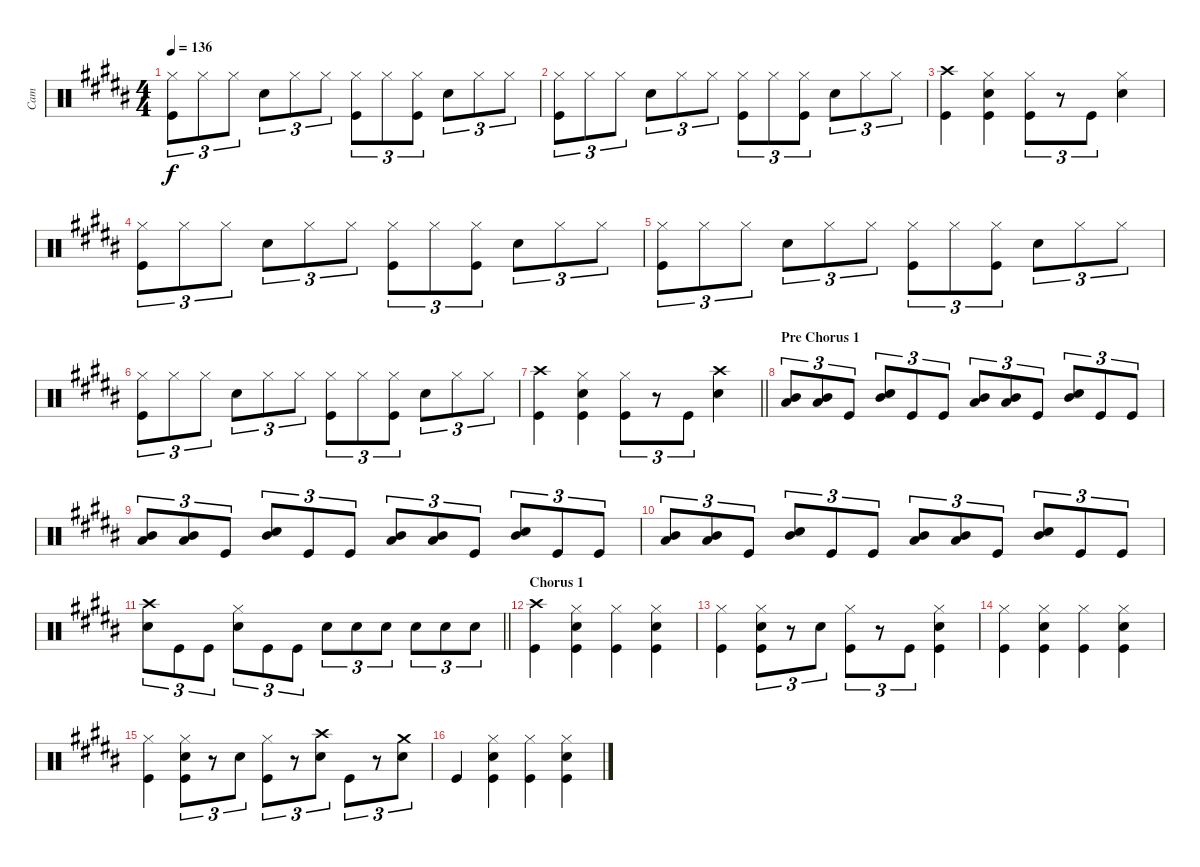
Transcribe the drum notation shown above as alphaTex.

\track ("Cam" "Cam") {instrument percussion}
\staff {score}
\articulation defaults
\ts (4 4)
\tempo 136
\clef neutral
\ks b
("Hi-Hat (closed)" "Kick (hit)").8{tu (3 2) dy f} "Hi-Hat (closed)".8{tu (3 2)} "Hi-Hat (closed)".8{tu (3 2)} "Snare (hit) 2".8{tu (3 2)} "Hi-Hat (closed)".8{tu (3 2)} "Hi-Hat (closed)".8{tu (3 2)} ("Hi-Hat (closed)" "Kick (hit)").8{tu (3 2)} "Hi-Hat (closed)".8{tu (3 2)} ("Hi-Hat (closed)" "Kick (hit)").8{tu (3 2)} "Snare (hit) 2".8{tu (3 2)} "Hi-Hat (closed)".8{tu (3 2)} "Hi-Hat (closed)".8{tu (3 2)} |
("Hi-Hat (closed)" "Kick (hit)").8{tu (3 2)} "Hi-Hat (closed)".8{tu (3 2)} "Hi-Hat (closed)".8{tu (3 2)} "Snare (hit) 2".8{tu (3 2)} "Hi-Hat (closed)".8{tu (3 2)} "Hi-Hat (closed)".8{tu (3 2)} ("Hi-Hat (closed)" "Kick (hit)").8{tu (3 2)} "Hi-Hat (closed)".8{tu (3 2)} ("Hi-Hat (closed)" "Kick (hit)").8{tu (3 2)} "Snare (hit) 2".8{tu (3 2)} "Hi-Hat (closed)".8{tu (3 2)} "Hi-Hat (closed)".8{tu (3 2)} |
("Crash high (hit)" "Kick (hit)").4 ("Snare (hit) 2" "Hi-Hat (closed)" "Kick (hit)").4 ("Hi-Hat (closed)" "Kick (hit)").8{tu (3 2)} r.8{tu (3 2)} "Kick (hit)".8{tu (3 2)} ("Snare (hit) 2" "Hi-Hat (closed)").4 |
("Hi-Hat (closed)" "Kick (hit)").8{tu (3 2)} "Hi-Hat (closed)".8{tu (3 2)} "Hi-Hat (closed)".8{tu (3 2)} "Snare (hit) 2".8{tu (3 2)} "Hi-Hat (closed)".8{tu (3 2)} "Hi-Hat (closed)".8{tu (3 2)} ("Hi-Hat (closed)" "Kick (hit)").8{tu (3 2)} "Hi-Hat (closed)".8{tu (3 2)} ("Hi-Hat (closed)" "Kick (hit)").8{tu (3 2)} "Snare (hit) 2".8{tu (3 2)} "Hi-Hat (closed)".8{tu (3 2)} "Hi-Hat (closed)".8{tu (3 2)} |
("Hi-Hat (closed)" "Kick (hit)").8{tu (3 2)} "Hi-Hat (closed)".8{tu (3 2)} "Hi-Hat (closed)".8{tu (3 2)} "Snare (hit) 2".8{tu (3 2)} "Hi-Hat (closed)".8{tu (3 2)} "Hi-Hat (closed)".8{tu (3 2)} ("Hi-Hat (closed)" "Kick (hit)").8{tu (3 2)} "Hi-Hat (closed)".8{tu (3 2)} ("Hi-Hat (closed)" "Kick (hit)").8{tu (3 2)} "Snare (hit) 2".8{tu (3 2)} "Hi-Hat (closed)".8{tu (3 2)} "Hi-Hat (closed)".8{tu (3 2)} |
("Hi-Hat (closed)" "Kick (hit)").8{tu (3 2)} "Hi-Hat (closed)".8{tu (3 2)} "Hi-Hat (closed)".8{tu (3 2)} "Snare (hit) 2".8{tu (3 2)} "Hi-Hat (closed)".8{tu (3 2)} "Hi-Hat (closed)".8{tu (3 2)} ("Hi-Hat (closed)" "Kick (hit)").8{tu (3 2)} "Hi-Hat (closed)".8{tu (3 2)} ("Hi-Hat (closed)" "Kick (hit)").8{tu (3 2)} "Snare (hit) 2".8{tu (3 2)} "Hi-Hat (closed)".8{tu (3 2)} "Hi-Hat (closed)".8{tu (3 2)} |
\barLineRight lightlight
("Crash high (hit)" "Kick (hit)").4 ("Snare (hit) 2" "Hi-Hat (closed)" "Kick (hit)").4 ("Hi-Hat (closed)" "Kick (hit)").8{tu (3 2)} r.8{tu (3 2)} "Kick (hit)".8{tu (3 2)} ("Crash high (hit)" "Snare (hit) 2").4 |
\section ("" "Pre Chorus 1")
("Low Tom (hit)" "Mid Tom (hit)").8{tu (3 2)} ("Low Tom (hit)" "Mid Tom (hit)").8{tu (3 2)} "Kick (hit)".8{tu (3 2)} ("Mid Tom (hit)" "Snare (hit) 2").8{tu (3 2)} "Kick (hit)".8{tu (3 2)} "Kick (hit)".8{tu (3 2)} ("Low Tom (hit)" "Mid Tom (hit)").8{tu (3 2)} ("Low Tom (hit)" "Mid Tom (hit)").8{tu (3 2)} "Kick (hit)".8{tu (3 2)} ("Mid Tom (hit)" "Snare (hit) 2").8{tu (3 2)} "Kick (hit)".8{tu (3 2)} "Kick (hit)".8{tu (3 2)} |
("Low Tom (hit)" "Mid Tom (hit)").8{tu (3 2)} ("Low Tom (hit)" "Mid Tom (hit)").8{tu (3 2)} "Kick (hit)".8{tu (3 2)} ("Mid Tom (hit)" "Snare (hit) 2").8{tu (3 2)} "Kick (hit)".8{tu (3 2)} "Kick (hit)".8{tu (3 2)} ("Low Tom (hit)" "Mid Tom (hit)").8{tu (3 2)} ("Low Tom (hit)" "Mid Tom (hit)").8{tu (3 2)} "Kick (hit)".8{tu (3 2)} ("Mid Tom (hit)" "Snare (hit) 2").8{tu (3 2)} "Kick (hit)".8{tu (3 2)} "Kick (hit)".8{tu (3 2)} |
("Low Tom (hit)" "Mid Tom (hit)").8{tu (3 2)} ("Low Tom (hit)" "Mid Tom (hit)").8{tu (3 2)} "Kick (hit)".8{tu (3 2)} ("Mid Tom (hit)" "Snare (hit) 2").8{tu (3 2)} "Kick (hit)".8{tu (3 2)} "Kick (hit)".8{tu (3 2)} ("Low Tom (hit)" "Mid Tom (hit)").8{tu (3 2)} ("Low Tom (hit)" "Mid Tom (hit)").8{tu (3 2)} "Kick (hit)".8{tu (3 2)} ("Mid Tom (hit)" "Snare (hit) 2").8{tu (3 2)} "Kick (hit)".8{tu (3 2)} "Kick (hit)".8{tu (3 2)} |
\barLineRight lightlight
("Crash high (hit)" "Snare (hit) 2").8{tu (3 2)} "Kick (hit)".8{tu (3 2)} "Kick (hit)".8{tu (3 2)} ("Snare (hit) 2" "Hi-Hat (closed)").8{tu (3 2)} "Kick (hit)".8{tu (3 2)} "Kick (hit)".8{tu (3 2)} "Snare (hit) 2".8{tu (3 2)} "Snare (hit) 2".8{tu (3 2)} "Snare (hit) 2".8{tu (3 2)} "Snare (hit) 2".8{tu (3 2)} "Snare (hit) 2".8{tu (3 2)} "Snare (hit) 2".8{tu (3 2)} |
\section ("" "Chorus 1")
("Crash high (hit)" "Kick (hit)").4 ("Snare (hit) 2" "Hi-Hat (closed)" "Kick (hit)").4 ("Hi-Hat (closed)" "Kick (hit)").4 ("Snare (hit) 2" "Hi-Hat (closed)" "Kick (hit)").4 |
("Hi-Hat (closed)" "Kick (hit)").4 ("Snare (hit) 2" "Hi-Hat (closed)" "Kick (hit)").8{tu (3 2)} r.8{tu (3 2)} "Snare (hit) 2".8{tu (3 2)} ("Hi-Hat (closed)" "Kick (hit)").8{tu (3 2)} r.8{tu (3 2)} "Kick (hit)".8{tu (3 2)} ("Snare (hit) 2" "Hi-Hat (closed)" "Kick (hit)").4 |
("Hi-Hat (closed)" "Kick (hit)").4 ("Snare (hit) 2" "Hi-Hat (closed)" "Kick (hit)").4 ("Hi-Hat (closed)" "Kick (hit)").4 ("Snare (hit) 2" "Hi-Hat (closed)" "Kick (hit)").4 |
("Hi-Hat (closed)" "Kick (hit)").4 ("Snare (hit) 2" "Hi-Hat (closed)" "Kick (hit)").8{tu (3 2)} r.8{tu (3 2)} "Snare (hit) 2".8{tu (3 2)} ("Hi-Hat (closed)" "Kick (hit)").8{tu (3 2)} r.8{tu (3 2)} ("Crash high (hit)" "Snare (hit) 2").8{tu (3 2)} "Kick (hit)".8{tu (3 2)} r.8{tu (3 2)} ("Crash medium (hit)" "Snare (hit) 2").8{tu (3 2)} |
"Kick (hit)".4 ("Snare (hit) 2" "Hi-Hat (closed)" "Kick (hit)").4 ("Hi-Hat (closed)" "Kick (hit)").4 ("Snare (hit) 2" "Hi-Hat (closed)" "Kick (hit)").4
